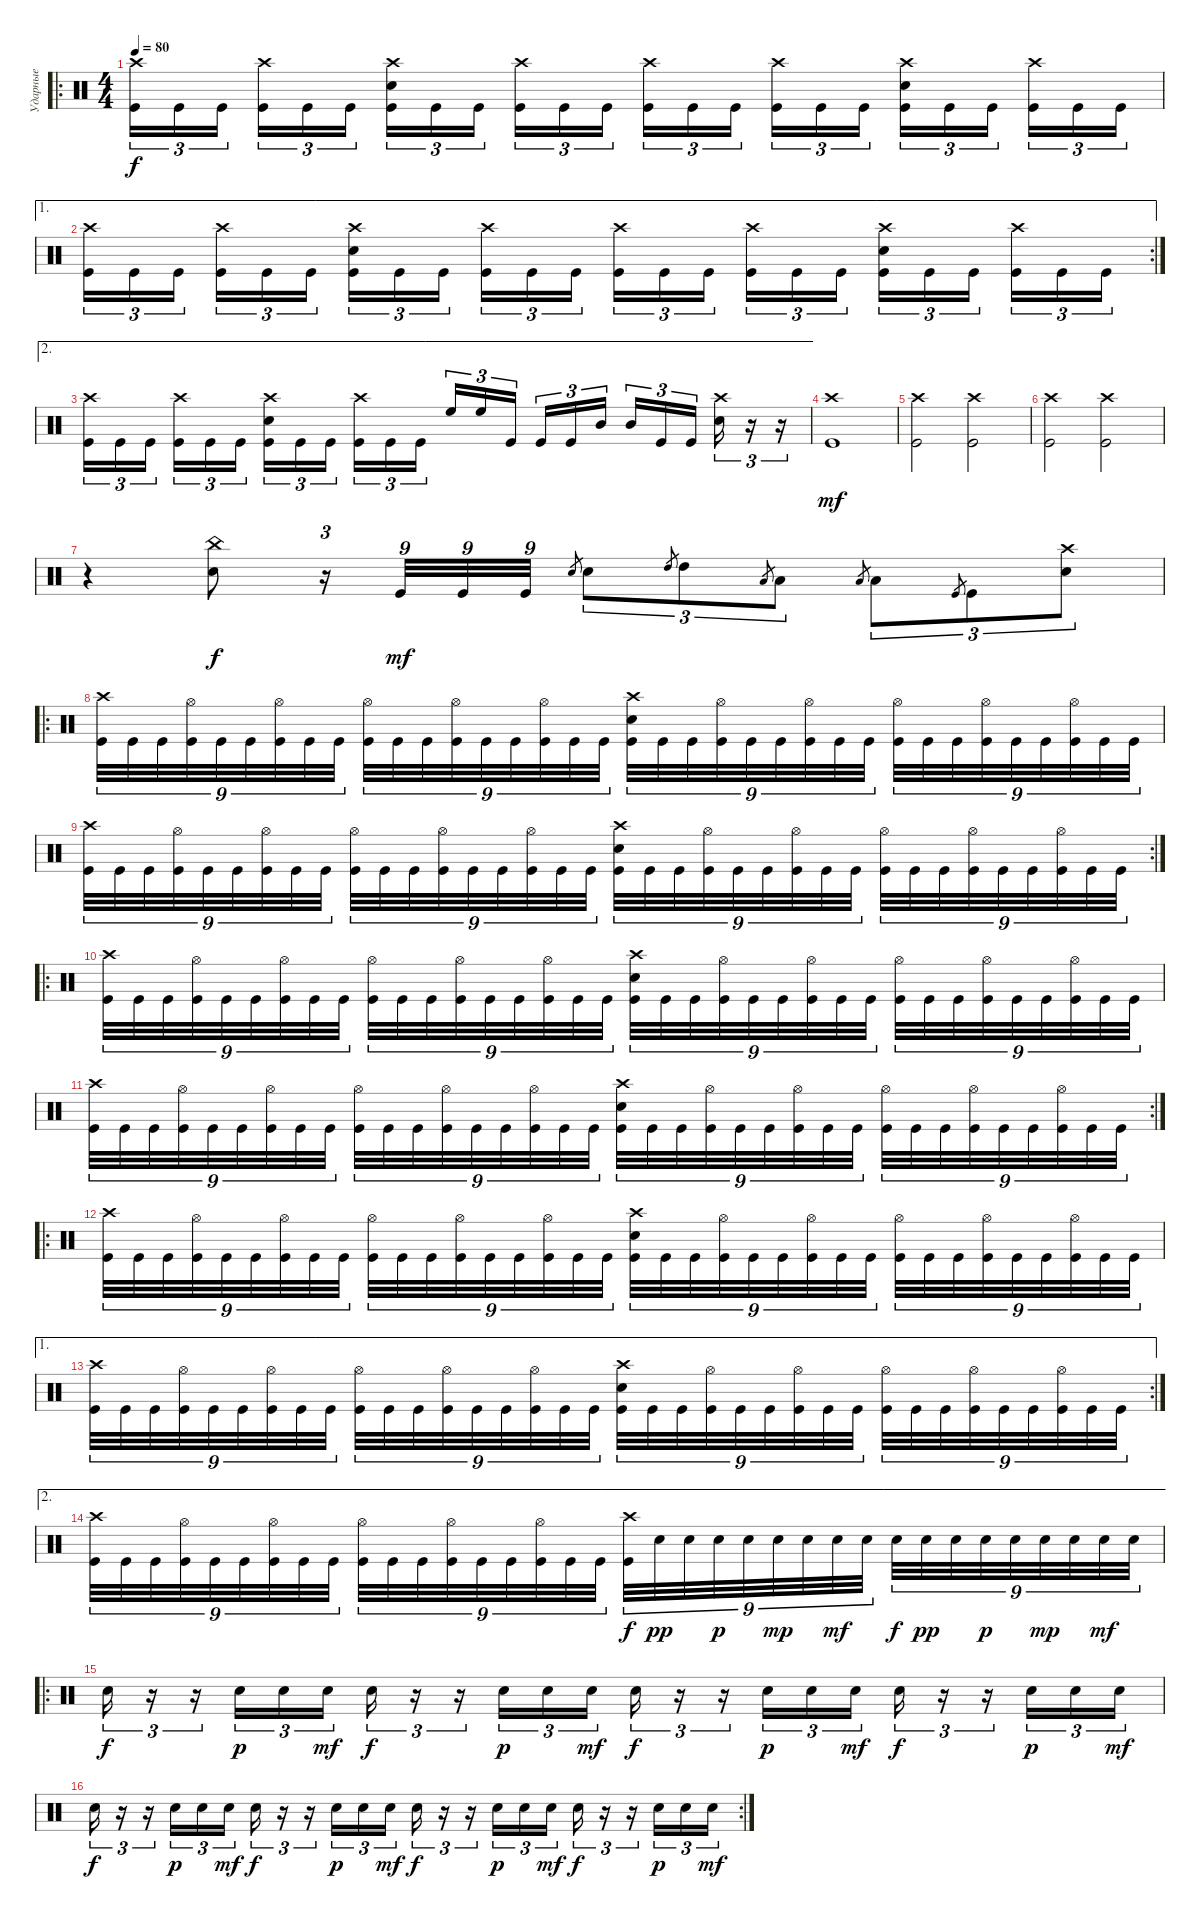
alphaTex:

\track ("Ударные" "Ударные") {instrument percussion}
\staff {score}
\articulation defaults
\ro
\ts (4 4)
\tempo 80
\clef neutral
\ks c
("Crash high (hit)" "Kick (hit)").16{tu (3 2) dy f} "Kick (hit)".16{tu (3 2)} "Kick (hit)".16{tu (3 2) beam splitsecondary} ("Crash high (hit)" "Kick (hit)").16{tu (3 2)} "Kick (hit)".16{tu (3 2)} "Kick (hit)".16{tu (3 2)} ("Crash high (hit)" "Snare (hit) 2" "Kick (hit)").16{tu (3 2)} "Kick (hit)".16{tu (3 2)} "Kick (hit)".16{tu (3 2) beam splitsecondary} ("Crash high (hit)" "Kick (hit)").16{tu (3 2)} "Kick (hit)".16{tu (3 2)} "Kick (hit)".16{tu (3 2)} ("Crash high (hit)" "Kick (hit)").16{tu (3 2)} "Kick (hit)".16{tu (3 2)} "Kick (hit)".16{tu (3 2) beam splitsecondary} ("Crash high (hit)" "Kick (hit)").16{tu (3 2)} "Kick (hit)".16{tu (3 2)} "Kick (hit)".16{tu (3 2)} ("Crash high (hit)" "Snare (hit) 2" "Kick (hit)").16{tu (3 2)} "Kick (hit)".16{tu (3 2)} "Kick (hit)".16{tu (3 2) beam splitsecondary} ("Crash high (hit)" "Kick (hit)").16{tu (3 2)} "Kick (hit)".16{tu (3 2)} "Kick (hit)".16{tu (3 2)} |
\ae 1
\rc 2
("Crash high (hit)" "Kick (hit)").16{tu (3 2)} "Kick (hit)".16{tu (3 2)} "Kick (hit)".16{tu (3 2) beam splitsecondary} ("Crash high (hit)" "Kick (hit)").16{tu (3 2)} "Kick (hit)".16{tu (3 2)} "Kick (hit)".16{tu (3 2)} ("Crash high (hit)" "Snare (hit) 2" "Kick (hit)").16{tu (3 2)} "Kick (hit)".16{tu (3 2)} "Kick (hit)".16{tu (3 2) beam splitsecondary} ("Crash high (hit)" "Kick (hit)").16{tu (3 2)} "Kick (hit)".16{tu (3 2)} "Kick (hit)".16{tu (3 2)} ("Crash high (hit)" "Kick (hit)").16{tu (3 2)} "Kick (hit)".16{tu (3 2)} "Kick (hit)".16{tu (3 2) beam splitsecondary} ("Crash high (hit)" "Kick (hit)").16{tu (3 2)} "Kick (hit)".16{tu (3 2)} "Kick (hit)".16{tu (3 2)} ("Crash high (hit)" "Snare (hit) 2" "Kick (hit)").16{tu (3 2)} "Kick (hit)".16{tu (3 2)} "Kick (hit)".16{tu (3 2) beam splitsecondary} ("Crash high (hit)" "Kick (hit)").16{tu (3 2)} "Kick (hit)".16{tu (3 2)} "Kick (hit)".16{tu (3 2)} |
\ae 2
("Crash high (hit)" "Kick (hit)").16{tu (3 2)} "Kick (hit)".16{tu (3 2)} "Kick (hit)".16{tu (3 2) beam splitsecondary} ("Crash high (hit)" "Kick (hit)").16{tu (3 2)} "Kick (hit)".16{tu (3 2)} "Kick (hit)".16{tu (3 2)} ("Crash high (hit)" "Snare (hit) 2" "Kick (hit)").16{tu (3 2)} "Kick (hit)".16{tu (3 2)} "Kick (hit)".16{tu (3 2) beam splitsecondary} ("Crash high (hit)" "Kick (hit)").16{tu (3 2)} "Kick (hit)".16{tu (3 2)} "Kick (hit)".16{tu (3 2)} "High Floor Tom (hit)".16{tu (3 2)} "High Floor Tom (hit)".16{tu (3 2)} "Kick (hit)".16{tu (3 2) beam splitsecondary} "Kick (hit)".16{tu (3 2)} "Kick (hit)".16{tu (3 2)} "Mid Tom (hit)".16{tu (3 2)} "Mid Tom (hit)".16{tu (3 2)} "Kick (hit)".16{tu (3 2)} "Kick (hit)".16{tu (3 2) beam splitsecondary} ("Crash high (hit)" "Snare (hit) 2").16{tu (3 2)} r.16{tu (3 2)} r.16{tu (3 2)} |
("Kick (hit)" "Crash high (hit)").1{dy mf} |
("Kick (hit)" "Crash high (hit)").2 ("Kick (hit)" "Crash high (hit)").2 |
("Kick (hit)" "Crash high (hit)").2 ("Kick (hit)" "Crash high (hit)").2 |
r.4 ("Snare (hit) 2" "China (hit)").8{dy f} r.16{tu (3 2)} "Kick (hit)".32{tu (9 8) dy mf} "Kick (hit)".32{tu (9 8)} "Kick (hit)".32{tu (9 8)} "Snare (hit) 2".8{gr} "Snare (hit) 2".8{tu (3 2)} "High Tom (hit)".8{gr} "High Tom (hit)".8{tu (3 2)} "Low Tom (hit)".8{gr} "Low Tom (hit)".8{tu (3 2)} "Low Floor Tom (hit)".8{gr} "Low Floor Tom (hit)".8{tu (3 2)} "Kick (hit)".8{gr} "Kick (hit)".8{tu (3 2)} ("Snare (hit) 2" "Crash high (hit)").8{tu (3 2)} |
\ro
("Crash high (hit)" "Kick (hit)").32{tu (9 8)} "Kick (hit)".32{tu (9 8)} "Kick (hit)".32{tu (9 8)} ("Hi-Hat (open)" "Kick (hit)").32{tu (9 8)} "Kick (hit)".32{tu (9 8)} "Kick (hit)".32{tu (9 8)} ("Hi-Hat (open)" "Kick (hit)").32{tu (9 8)} "Kick (hit)".32{tu (9 8)} "Kick (hit)".32{tu (9 8)} ("Hi-Hat (open)" "Kick (hit)").32{tu (9 8)} "Kick (hit)".32{tu (9 8)} "Kick (hit)".32{tu (9 8)} ("Hi-Hat (open)" "Kick (hit)").32{tu (9 8)} "Kick (hit)".32{tu (9 8)} "Kick (hit)".32{tu (9 8)} ("Hi-Hat (open)" "Kick (hit)").32{tu (9 8)} "Kick (hit)".32{tu (9 8)} "Kick (hit)".32{tu (9 8)} ("Crash high (hit)" "Snare (hit) 2" "Kick (hit)").32{tu (9 8)} "Kick (hit)".32{tu (9 8)} "Kick (hit)".32{tu (9 8)} ("Hi-Hat (open)" "Kick (hit)").32{tu (9 8)} "Kick (hit)".32{tu (9 8)} "Kick (hit)".32{tu (9 8)} ("Hi-Hat (open)" "Kick (hit)").32{tu (9 8)} "Kick (hit)".32{tu (9 8)} "Kick (hit)".32{tu (9 8)} ("Hi-Hat (open)" "Kick (hit)").32{tu (9 8)} "Kick (hit)".32{tu (9 8)} "Kick (hit)".32{tu (9 8)} ("Hi-Hat (open)" "Kick (hit)").32{tu (9 8)} "Kick (hit)".32{tu (9 8)} "Kick (hit)".32{tu (9 8)} ("Hi-Hat (open)" "Kick (hit)").32{tu (9 8)} "Kick (hit)".32{tu (9 8)} "Kick (hit)".32{tu (9 8)} |
\rc 2
("Crash high (hit)" "Kick (hit)").32{tu (9 8)} "Kick (hit)".32{tu (9 8)} "Kick (hit)".32{tu (9 8)} ("Hi-Hat (open)" "Kick (hit)").32{tu (9 8)} "Kick (hit)".32{tu (9 8)} "Kick (hit)".32{tu (9 8)} ("Hi-Hat (open)" "Kick (hit)").32{tu (9 8)} "Kick (hit)".32{tu (9 8)} "Kick (hit)".32{tu (9 8)} ("Hi-Hat (open)" "Kick (hit)").32{tu (9 8)} "Kick (hit)".32{tu (9 8)} "Kick (hit)".32{tu (9 8)} ("Hi-Hat (open)" "Kick (hit)").32{tu (9 8)} "Kick (hit)".32{tu (9 8)} "Kick (hit)".32{tu (9 8)} ("Hi-Hat (open)" "Kick (hit)").32{tu (9 8)} "Kick (hit)".32{tu (9 8)} "Kick (hit)".32{tu (9 8)} ("Crash high (hit)" "Snare (hit) 2" "Kick (hit)").32{tu (9 8)} "Kick (hit)".32{tu (9 8)} "Kick (hit)".32{tu (9 8)} ("Hi-Hat (open)" "Kick (hit)").32{tu (9 8)} "Kick (hit)".32{tu (9 8)} "Kick (hit)".32{tu (9 8)} ("Hi-Hat (open)" "Kick (hit)").32{tu (9 8)} "Kick (hit)".32{tu (9 8)} "Kick (hit)".32{tu (9 8)} ("Hi-Hat (open)" "Kick (hit)").32{tu (9 8)} "Kick (hit)".32{tu (9 8)} "Kick (hit)".32{tu (9 8)} ("Hi-Hat (open)" "Kick (hit)").32{tu (9 8)} "Kick (hit)".32{tu (9 8)} "Kick (hit)".32{tu (9 8)} ("Hi-Hat (open)" "Kick (hit)").32{tu (9 8)} "Kick (hit)".32{tu (9 8)} "Kick (hit)".32{tu (9 8)} |
\ro
("Crash high (hit)" "Kick (hit)").32{tu (9 8)} "Kick (hit)".32{tu (9 8)} "Kick (hit)".32{tu (9 8)} ("Hi-Hat (open)" "Kick (hit)").32{tu (9 8)} "Kick (hit)".32{tu (9 8)} "Kick (hit)".32{tu (9 8)} ("Hi-Hat (open)" "Kick (hit)").32{tu (9 8)} "Kick (hit)".32{tu (9 8)} "Kick (hit)".32{tu (9 8)} ("Hi-Hat (open)" "Kick (hit)").32{tu (9 8)} "Kick (hit)".32{tu (9 8)} "Kick (hit)".32{tu (9 8)} ("Hi-Hat (open)" "Kick (hit)").32{tu (9 8)} "Kick (hit)".32{tu (9 8)} "Kick (hit)".32{tu (9 8)} ("Hi-Hat (open)" "Kick (hit)").32{tu (9 8)} "Kick (hit)".32{tu (9 8)} "Kick (hit)".32{tu (9 8)} ("Crash high (hit)" "Snare (hit) 2" "Kick (hit)").32{tu (9 8)} "Kick (hit)".32{tu (9 8)} "Kick (hit)".32{tu (9 8)} ("Hi-Hat (open)" "Kick (hit)").32{tu (9 8)} "Kick (hit)".32{tu (9 8)} "Kick (hit)".32{tu (9 8)} ("Hi-Hat (open)" "Kick (hit)").32{tu (9 8)} "Kick (hit)".32{tu (9 8)} "Kick (hit)".32{tu (9 8)} ("Hi-Hat (open)" "Kick (hit)").32{tu (9 8)} "Kick (hit)".32{tu (9 8)} "Kick (hit)".32{tu (9 8)} ("Hi-Hat (open)" "Kick (hit)").32{tu (9 8)} "Kick (hit)".32{tu (9 8)} "Kick (hit)".32{tu (9 8)} ("Hi-Hat (open)" "Kick (hit)").32{tu (9 8)} "Kick (hit)".32{tu (9 8)} "Kick (hit)".32{tu (9 8)} |
\rc 2
("Crash high (hit)" "Kick (hit)").32{tu (9 8)} "Kick (hit)".32{tu (9 8)} "Kick (hit)".32{tu (9 8)} ("Hi-Hat (open)" "Kick (hit)").32{tu (9 8)} "Kick (hit)".32{tu (9 8)} "Kick (hit)".32{tu (9 8)} ("Hi-Hat (open)" "Kick (hit)").32{tu (9 8)} "Kick (hit)".32{tu (9 8)} "Kick (hit)".32{tu (9 8)} ("Hi-Hat (open)" "Kick (hit)").32{tu (9 8)} "Kick (hit)".32{tu (9 8)} "Kick (hit)".32{tu (9 8)} ("Hi-Hat (open)" "Kick (hit)").32{tu (9 8)} "Kick (hit)".32{tu (9 8)} "Kick (hit)".32{tu (9 8)} ("Hi-Hat (open)" "Kick (hit)").32{tu (9 8)} "Kick (hit)".32{tu (9 8)} "Kick (hit)".32{tu (9 8)} ("Crash high (hit)" "Snare (hit) 2" "Kick (hit)").32{tu (9 8)} "Kick (hit)".32{tu (9 8)} "Kick (hit)".32{tu (9 8)} ("Hi-Hat (open)" "Kick (hit)").32{tu (9 8)} "Kick (hit)".32{tu (9 8)} "Kick (hit)".32{tu (9 8)} ("Hi-Hat (open)" "Kick (hit)").32{tu (9 8)} "Kick (hit)".32{tu (9 8)} "Kick (hit)".32{tu (9 8)} ("Hi-Hat (open)" "Kick (hit)").32{tu (9 8)} "Kick (hit)".32{tu (9 8)} "Kick (hit)".32{tu (9 8)} ("Hi-Hat (open)" "Kick (hit)").32{tu (9 8)} "Kick (hit)".32{tu (9 8)} "Kick (hit)".32{tu (9 8)} ("Hi-Hat (open)" "Kick (hit)").32{tu (9 8)} "Kick (hit)".32{tu (9 8)} "Kick (hit)".32{tu (9 8)} |
\ro
("Crash high (hit)" "Kick (hit)").32{tu (9 8)} "Kick (hit)".32{tu (9 8)} "Kick (hit)".32{tu (9 8)} ("Hi-Hat (open)" "Kick (hit)").32{tu (9 8)} "Kick (hit)".32{tu (9 8)} "Kick (hit)".32{tu (9 8)} ("Hi-Hat (open)" "Kick (hit)").32{tu (9 8)} "Kick (hit)".32{tu (9 8)} "Kick (hit)".32{tu (9 8)} ("Hi-Hat (open)" "Kick (hit)").32{tu (9 8)} "Kick (hit)".32{tu (9 8)} "Kick (hit)".32{tu (9 8)} ("Hi-Hat (open)" "Kick (hit)").32{tu (9 8)} "Kick (hit)".32{tu (9 8)} "Kick (hit)".32{tu (9 8)} ("Hi-Hat (open)" "Kick (hit)").32{tu (9 8)} "Kick (hit)".32{tu (9 8)} "Kick (hit)".32{tu (9 8)} ("Crash high (hit)" "Snare (hit) 2" "Kick (hit)").32{tu (9 8)} "Kick (hit)".32{tu (9 8)} "Kick (hit)".32{tu (9 8)} ("Hi-Hat (open)" "Kick (hit)").32{tu (9 8)} "Kick (hit)".32{tu (9 8)} "Kick (hit)".32{tu (9 8)} ("Hi-Hat (open)" "Kick (hit)").32{tu (9 8)} "Kick (hit)".32{tu (9 8)} "Kick (hit)".32{tu (9 8)} ("Hi-Hat (open)" "Kick (hit)").32{tu (9 8)} "Kick (hit)".32{tu (9 8)} "Kick (hit)".32{tu (9 8)} ("Hi-Hat (open)" "Kick (hit)").32{tu (9 8)} "Kick (hit)".32{tu (9 8)} "Kick (hit)".32{tu (9 8)} ("Hi-Hat (open)" "Kick (hit)").32{tu (9 8)} "Kick (hit)".32{tu (9 8)} "Kick (hit)".32{tu (9 8)} |
\ae 1
\rc 2
("Crash high (hit)" "Kick (hit)").32{tu (9 8)} "Kick (hit)".32{tu (9 8)} "Kick (hit)".32{tu (9 8)} ("Hi-Hat (open)" "Kick (hit)").32{tu (9 8)} "Kick (hit)".32{tu (9 8)} "Kick (hit)".32{tu (9 8)} ("Hi-Hat (open)" "Kick (hit)").32{tu (9 8)} "Kick (hit)".32{tu (9 8)} "Kick (hit)".32{tu (9 8)} ("Hi-Hat (open)" "Kick (hit)").32{tu (9 8)} "Kick (hit)".32{tu (9 8)} "Kick (hit)".32{tu (9 8)} ("Hi-Hat (open)" "Kick (hit)").32{tu (9 8)} "Kick (hit)".32{tu (9 8)} "Kick (hit)".32{tu (9 8)} ("Hi-Hat (open)" "Kick (hit)").32{tu (9 8)} "Kick (hit)".32{tu (9 8)} "Kick (hit)".32{tu (9 8)} ("Crash high (hit)" "Snare (hit) 2" "Kick (hit)").32{tu (9 8)} "Kick (hit)".32{tu (9 8)} "Kick (hit)".32{tu (9 8)} ("Hi-Hat (open)" "Kick (hit)").32{tu (9 8)} "Kick (hit)".32{tu (9 8)} "Kick (hit)".32{tu (9 8)} ("Hi-Hat (open)" "Kick (hit)").32{tu (9 8)} "Kick (hit)".32{tu (9 8)} "Kick (hit)".32{tu (9 8)} ("Hi-Hat (open)" "Kick (hit)").32{tu (9 8)} "Kick (hit)".32{tu (9 8)} "Kick (hit)".32{tu (9 8)} ("Hi-Hat (open)" "Kick (hit)").32{tu (9 8)} "Kick (hit)".32{tu (9 8)} "Kick (hit)".32{tu (9 8)} ("Hi-Hat (open)" "Kick (hit)").32{tu (9 8)} "Kick (hit)".32{tu (9 8)} "Kick (hit)".32{tu (9 8)} |
\ae 2
("Crash high (hit)" "Kick (hit)").32{tu (9 8)} "Kick (hit)".32{tu (9 8)} "Kick (hit)".32{tu (9 8)} ("Hi-Hat (open)" "Kick (hit)").32{tu (9 8)} "Kick (hit)".32{tu (9 8)} "Kick (hit)".32{tu (9 8)} ("Hi-Hat (open)" "Kick (hit)").32{tu (9 8)} "Kick (hit)".32{tu (9 8)} "Kick (hit)".32{tu (9 8)} ("Hi-Hat (open)" "Kick (hit)").32{tu (9 8)} "Kick (hit)".32{tu (9 8)} "Kick (hit)".32{tu (9 8)} ("Hi-Hat (open)" "Kick (hit)").32{tu (9 8)} "Kick (hit)".32{tu (9 8)} "Kick (hit)".32{tu (9 8)} ("Hi-Hat (open)" "Kick (hit)").32{tu (9 8)} "Kick (hit)".32{tu (9 8)} "Kick (hit)".32{tu (9 8)} ("Crash high (hit)" "Kick (hit)").32{tu (9 8) dy f} "Snare (hit) 2".32{tu (9 8) dy pp} "Snare (hit) 2".32{tu (9 8)} "Snare (hit) 2".32{tu (9 8) dy p} "Snare (hit) 2".32{tu (9 8)} "Snare (hit) 2".32{tu (9 8) dy mp} "Snare (hit) 2".32{tu (9 8)} "Snare (hit) 2".32{tu (9 8) dy mf} "Snare (hit) 2".32{tu (9 8)} "Snare (hit) 2".32{tu (9 8) dy f} "Snare (hit) 2".32{tu (9 8) dy pp} "Snare (hit) 2".32{tu (9 8)} "Snare (hit) 2".32{tu (9 8) dy p} "Snare (hit) 2".32{tu (9 8)} "Snare (hit) 2".32{tu (9 8) dy mp} "Snare (hit) 2".32{tu (9 8)} "Snare (hit) 2".32{tu (9 8) dy mf} "Snare (hit) 2".32{tu (9 8)} |
\ro "Snare (hit) 2".16{tu (3 2) dy f}
r.16{tu (3 2)} r.16{tu (3 2)} "Snare (hit) 2".16{tu (3 2) dy p} "Snare (hit) 2".16{tu (3 2)} "Snare (hit) 2".16{tu (3 2) dy mf} "Snare (hit) 2".16{tu (3 2) dy f} r.16{tu (3 2)} r.16{tu (3 2)} "Snare (hit) 2".16{tu (3 2) dy p} "Snare (hit) 2".16{tu (3 2)} "Snare (hit) 2".16{tu (3 2) dy mf} "Snare (hit) 2".16{tu (3 2) dy f} r.16{tu (3 2)} r.16{tu (3 2)} "Snare (hit) 2".16{tu (3 2) dy p} "Snare (hit) 2".16{tu (3 2)} "Snare (hit) 2".16{tu (3 2) dy mf} "Snare (hit) 2".16{tu (3 2) dy f} r.16{tu (3 2)} r.16{tu (3 2)} "Snare (hit) 2".16{tu (3 2) dy p} "Snare (hit) 2".16{tu (3 2)} "Snare (hit) 2".16{tu (3 2) dy mf} |
\rc 2 "Snare (hit) 2".16{tu (3 2) dy f}
r.16{tu (3 2)} r.16{tu (3 2)} "Snare (hit) 2".16{tu (3 2) dy p} "Snare (hit) 2".16{tu (3 2)} "Snare (hit) 2".16{tu (3 2) dy mf} "Snare (hit) 2".16{tu (3 2) dy f} r.16{tu (3 2)} r.16{tu (3 2)} "Snare (hit) 2".16{tu (3 2) dy p} "Snare (hit) 2".16{tu (3 2)} "Snare (hit) 2".16{tu (3 2) dy mf} "Snare (hit) 2".16{tu (3 2) dy f} r.16{tu (3 2)} r.16{tu (3 2)} "Snare (hit) 2".16{tu (3 2) dy p} "Snare (hit) 2".16{tu (3 2)} "Snare (hit) 2".16{tu (3 2) dy mf} "Snare (hit) 2".16{tu (3 2) dy f} r.16{tu (3 2)} r.16{tu (3 2)} "Snare (hit) 2".16{tu (3 2) dy p} "Snare (hit) 2".16{tu (3 2)} "Snare (hit) 2".16{tu (3 2) dy mf}
